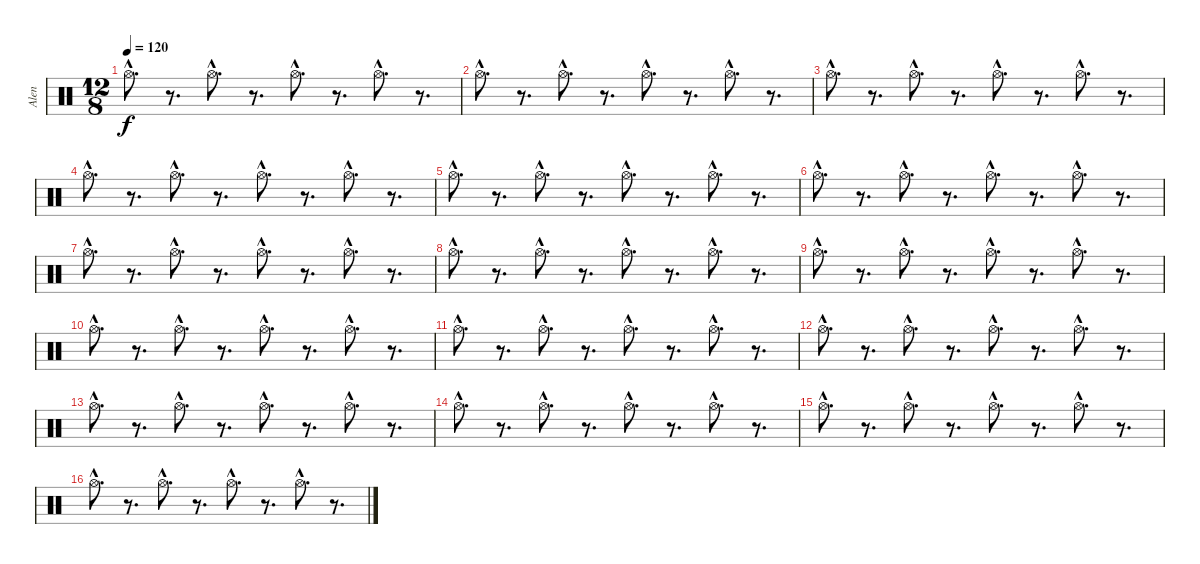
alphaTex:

\track ("Alen" "Alen") {instrument percussion}
\staff {score}
\articulation defaults
\ts (12 8)
\tempo 120
\clef neutral
\ks c "Hi-Hat (open)"{hac}.8{d dy f}
r.8{d} "Hi-Hat (open)"{hac}.8{d} r.8{d} "Hi-Hat (open)"{hac}.8{d} r.8{d} "Hi-Hat (open)"{hac}.8{d} r.8{d} |
"Hi-Hat (open)"{hac}.8{d} r.8{d} "Hi-Hat (open)"{hac}.8{d} r.8{d} "Hi-Hat (open)"{hac}.8{d} r.8{d} "Hi-Hat (open)"{hac}.8{d} r.8{d} |
"Hi-Hat (open)"{hac}.8{d} r.8{d} "Hi-Hat (open)"{hac}.8{d} r.8{d} "Hi-Hat (open)"{hac}.8{d} r.8{d} "Hi-Hat (open)"{hac}.8{d} r.8{d} |
"Hi-Hat (open)"{hac}.8{d} r.8{d} "Hi-Hat (open)"{hac}.8{d} r.8{d} "Hi-Hat (open)"{hac}.8{d} r.8{d} "Hi-Hat (open)"{hac}.8{d} r.8{d} |
"Hi-Hat (open)"{hac}.8{d} r.8{d} "Hi-Hat (open)"{hac}.8{d} r.8{d} "Hi-Hat (open)"{hac}.8{d} r.8{d} "Hi-Hat (open)"{hac}.8{d} r.8{d} |
"Hi-Hat (open)"{hac}.8{d} r.8{d} "Hi-Hat (open)"{hac}.8{d} r.8{d} "Hi-Hat (open)"{hac}.8{d} r.8{d} "Hi-Hat (open)"{hac}.8{d} r.8{d} |
"Hi-Hat (open)"{hac}.8{d} r.8{d} "Hi-Hat (open)"{hac}.8{d} r.8{d} "Hi-Hat (open)"{hac}.8{d} r.8{d} "Hi-Hat (open)"{hac}.8{d} r.8{d} |
"Hi-Hat (open)"{hac}.8{d} r.8{d} "Hi-Hat (open)"{hac}.8{d} r.8{d} "Hi-Hat (open)"{hac}.8{d} r.8{d} "Hi-Hat (open)"{hac}.8{d} r.8{d} |
"Hi-Hat (open)"{hac}.8{d} r.8{d} "Hi-Hat (open)"{hac}.8{d} r.8{d} "Hi-Hat (open)"{hac}.8{d} r.8{d} "Hi-Hat (open)"{hac}.8{d} r.8{d} |
"Hi-Hat (open)"{hac}.8{d} r.8{d} "Hi-Hat (open)"{hac}.8{d} r.8{d} "Hi-Hat (open)"{hac}.8{d} r.8{d} "Hi-Hat (open)"{hac}.8{d} r.8{d} |
"Hi-Hat (open)"{hac}.8{d} r.8{d} "Hi-Hat (open)"{hac}.8{d} r.8{d} "Hi-Hat (open)"{hac}.8{d} r.8{d} "Hi-Hat (open)"{hac}.8{d} r.8{d} |
"Hi-Hat (open)"{hac}.8{d} r.8{d} "Hi-Hat (open)"{hac}.8{d} r.8{d} "Hi-Hat (open)"{hac}.8{d} r.8{d} "Hi-Hat (open)"{hac}.8{d} r.8{d} |
"Hi-Hat (open)"{hac}.8{d} r.8{d} "Hi-Hat (open)"{hac}.8{d} r.8{d} "Hi-Hat (open)"{hac}.8{d} r.8{d} "Hi-Hat (open)"{hac}.8{d} r.8{d} |
"Hi-Hat (open)"{hac}.8{d} r.8{d} "Hi-Hat (open)"{hac}.8{d} r.8{d} "Hi-Hat (open)"{hac}.8{d} r.8{d} "Hi-Hat (open)"{hac}.8{d} r.8{d} |
"Hi-Hat (open)"{hac}.8{d} r.8{d} "Hi-Hat (open)"{hac}.8{d} r.8{d} "Hi-Hat (open)"{hac}.8{d} r.8{d} "Hi-Hat (open)"{hac}.8{d} r.8{d} |
"Hi-Hat (open)"{hac}.8{d} r.8{d} "Hi-Hat (open)"{hac}.8{d} r.8{d} "Hi-Hat (open)"{hac}.8{d} r.8{d} "Hi-Hat (open)"{hac}.8{d} r.8{d}
